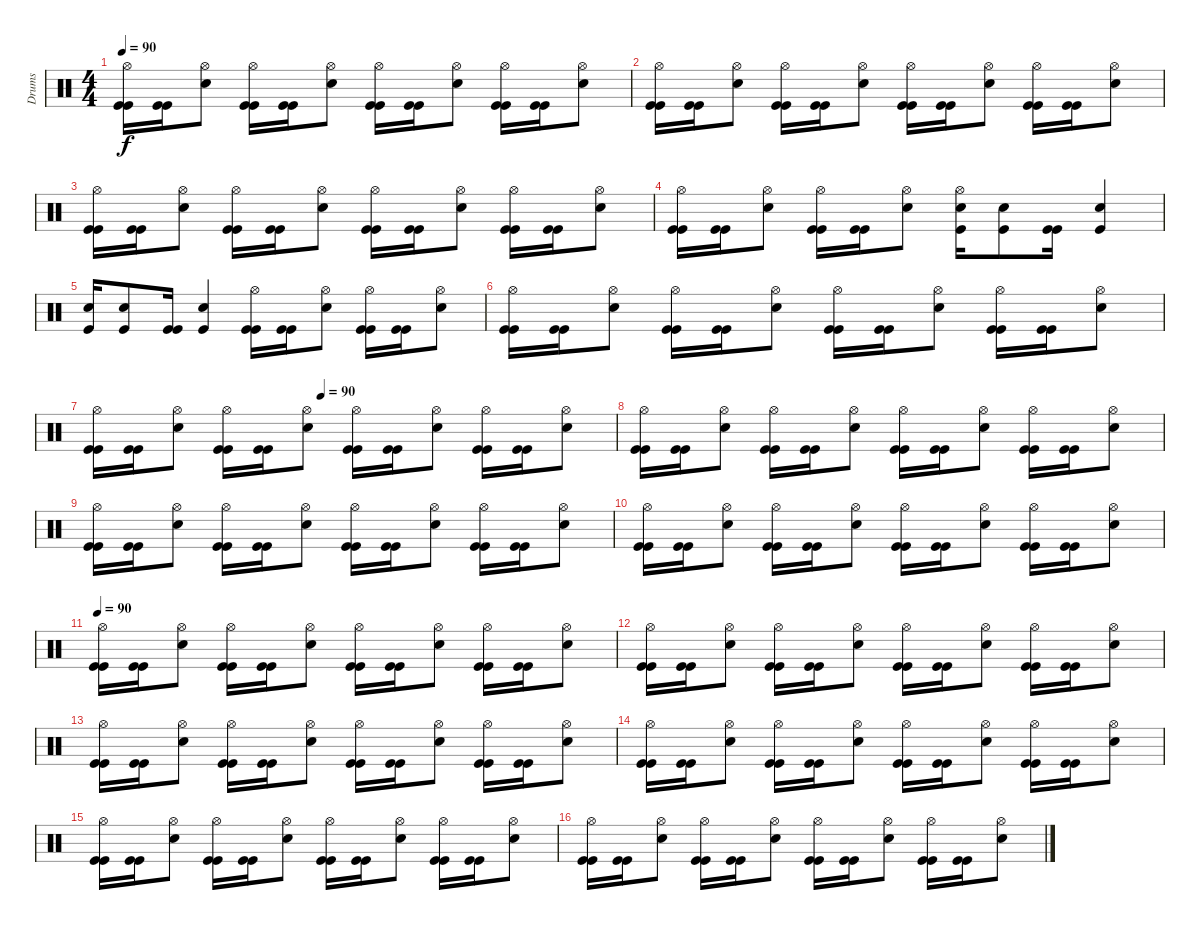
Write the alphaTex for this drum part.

\track ("Drums" "Drums") {instrument percussion}
\staff {score}
\articulation defaults
\ts (4 4)
\tempo 90
\clef neutral
\ks c
("Hi-Hat (open)" "Kick (hit)" "Kick (hit)").16{dy f} ("Kick (hit)" "Kick (hit)").16 ("Hi-Hat (open)" "Electric Snare (hit)").8 ("Hi-Hat (open)" "Kick (hit)" "Kick (hit)").16 ("Kick (hit)" "Kick (hit)").16 ("Hi-Hat (open)" "Electric Snare (hit)").8 ("Hi-Hat (open)" "Kick (hit)" "Kick (hit)").16 ("Kick (hit)" "Kick (hit)").16 ("Hi-Hat (open)" "Electric Snare (hit)").8 ("Hi-Hat (open)" "Kick (hit)" "Kick (hit)").16 ("Kick (hit)" "Kick (hit)").16 ("Hi-Hat (open)" "Electric Snare (hit)").8 |
("Hi-Hat (open)" "Kick (hit)" "Kick (hit)").16 ("Kick (hit)" "Kick (hit)").16 ("Hi-Hat (open)" "Electric Snare (hit)").8 ("Hi-Hat (open)" "Kick (hit)" "Kick (hit)").16 ("Kick (hit)" "Kick (hit)").16 ("Hi-Hat (open)" "Electric Snare (hit)").8 ("Hi-Hat (open)" "Kick (hit)" "Kick (hit)").16 ("Kick (hit)" "Kick (hit)").16 ("Hi-Hat (open)" "Electric Snare (hit)").8 ("Hi-Hat (open)" "Kick (hit)" "Kick (hit)").16 ("Kick (hit)" "Kick (hit)").16 ("Hi-Hat (open)" "Electric Snare (hit)").8 |
("Hi-Hat (open)" "Kick (hit)" "Kick (hit)").16 ("Kick (hit)" "Kick (hit)").16 ("Hi-Hat (open)" "Electric Snare (hit)").8 ("Hi-Hat (open)" "Kick (hit)" "Kick (hit)").16 ("Kick (hit)" "Kick (hit)").16 ("Hi-Hat (open)" "Electric Snare (hit)").8 ("Hi-Hat (open)" "Kick (hit)" "Kick (hit)").16 ("Kick (hit)" "Kick (hit)").16 ("Hi-Hat (open)" "Electric Snare (hit)").8 ("Hi-Hat (open)" "Kick (hit)" "Kick (hit)").16 ("Kick (hit)" "Kick (hit)").16 ("Hi-Hat (open)" "Electric Snare (hit)").8 |
("Hi-Hat (open)" "Kick (hit)" "Kick (hit)").16 ("Kick (hit)" "Kick (hit)").16 ("Hi-Hat (open)" "Electric Snare (hit)").8 ("Hi-Hat (open)" "Kick (hit)" "Kick (hit)").16 ("Kick (hit)" "Kick (hit)").16 ("Hi-Hat (open)" "Electric Snare (hit)").8 ("Hi-Hat (open)" "Electric Snare (hit)" "Kick (hit)").16 ("Electric Snare (hit)" "Kick (hit)").8 ("Kick (hit)" "Kick (hit)").16 ("Electric Snare (hit)" "Kick (hit)").4 |
("Electric Snare (hit)" "Kick (hit)").16 ("Electric Snare (hit)" "Kick (hit)").8 ("Kick (hit)" "Kick (hit)").16 ("Electric Snare (hit)" "Kick (hit)").4 ("Hi-Hat (open)" "Kick (hit)" "Kick (hit)").16 ("Kick (hit)" "Kick (hit)").16 ("Hi-Hat (open)" "Electric Snare (hit)").8 ("Hi-Hat (open)" "Kick (hit)" "Kick (hit)").16 ("Kick (hit)" "Kick (hit)").16 ("Hi-Hat (open)" "Electric Snare (hit)").8 |
("Hi-Hat (open)" "Kick (hit)" "Kick (hit)").16 ("Kick (hit)" "Kick (hit)").16 ("Hi-Hat (open)" "Electric Snare (hit)").8 ("Hi-Hat (open)" "Kick (hit)" "Kick (hit)").16 ("Kick (hit)" "Kick (hit)").16 ("Hi-Hat (open)" "Electric Snare (hit)").8 ("Hi-Hat (open)" "Kick (hit)" "Kick (hit)").16 ("Kick (hit)" "Kick (hit)").16 ("Hi-Hat (open)" "Electric Snare (hit)").8 ("Hi-Hat (open)" "Kick (hit)" "Kick (hit)").16 ("Kick (hit)" "Kick (hit)").16 ("Hi-Hat (open)" "Electric Snare (hit)").8 |
\tempo (90 0.4375)
("Hi-Hat (open)" "Kick (hit)" "Kick (hit)").16 ("Kick (hit)" "Kick (hit)").16 ("Hi-Hat (open)" "Electric Snare (hit)").8 ("Hi-Hat (open)" "Kick (hit)" "Kick (hit)").16 ("Kick (hit)" "Kick (hit)").16 ("Hi-Hat (open)" "Electric Snare (hit)").8 ("Hi-Hat (open)" "Kick (hit)" "Kick (hit)").16 ("Kick (hit)" "Kick (hit)").16 ("Hi-Hat (open)" "Electric Snare (hit)").8 ("Hi-Hat (open)" "Kick (hit)" "Kick (hit)").16 ("Kick (hit)" "Kick (hit)").16 ("Hi-Hat (open)" "Electric Snare (hit)").8 |
("Hi-Hat (open)" "Kick (hit)" "Kick (hit)").16 ("Kick (hit)" "Kick (hit)").16 ("Hi-Hat (open)" "Electric Snare (hit)").8 ("Hi-Hat (open)" "Kick (hit)" "Kick (hit)").16 ("Kick (hit)" "Kick (hit)").16 ("Hi-Hat (open)" "Electric Snare (hit)").8 ("Hi-Hat (open)" "Kick (hit)" "Kick (hit)").16 ("Kick (hit)" "Kick (hit)").16 ("Hi-Hat (open)" "Electric Snare (hit)").8 ("Hi-Hat (open)" "Kick (hit)" "Kick (hit)").16 ("Kick (hit)" "Kick (hit)").16 ("Hi-Hat (open)" "Electric Snare (hit)").8 |
("Hi-Hat (open)" "Kick (hit)" "Kick (hit)").16 ("Kick (hit)" "Kick (hit)").16 ("Hi-Hat (open)" "Electric Snare (hit)").8 ("Hi-Hat (open)" "Kick (hit)" "Kick (hit)").16 ("Kick (hit)" "Kick (hit)").16 ("Hi-Hat (open)" "Electric Snare (hit)").8 ("Hi-Hat (open)" "Kick (hit)" "Kick (hit)").16 ("Kick (hit)" "Kick (hit)").16 ("Hi-Hat (open)" "Electric Snare (hit)").8 ("Hi-Hat (open)" "Kick (hit)" "Kick (hit)").16 ("Kick (hit)" "Kick (hit)").16 ("Hi-Hat (open)" "Electric Snare (hit)").8 |
("Hi-Hat (open)" "Kick (hit)" "Kick (hit)").16 ("Kick (hit)" "Kick (hit)").16 ("Hi-Hat (open)" "Electric Snare (hit)").8 ("Hi-Hat (open)" "Kick (hit)" "Kick (hit)").16 ("Kick (hit)" "Kick (hit)").16 ("Hi-Hat (open)" "Electric Snare (hit)").8 ("Hi-Hat (open)" "Kick (hit)" "Kick (hit)").16 ("Kick (hit)" "Kick (hit)").16 ("Hi-Hat (open)" "Electric Snare (hit)").8 ("Hi-Hat (open)" "Kick (hit)" "Kick (hit)").16 ("Kick (hit)" "Kick (hit)").16 ("Hi-Hat (open)" "Electric Snare (hit)").8 |
\tempo 90
("Hi-Hat (open)" "Kick (hit)" "Kick (hit)").16 ("Kick (hit)" "Kick (hit)").16 ("Hi-Hat (open)" "Electric Snare (hit)").8 ("Hi-Hat (open)" "Kick (hit)" "Kick (hit)").16 ("Kick (hit)" "Kick (hit)").16 ("Hi-Hat (open)" "Electric Snare (hit)").8 ("Hi-Hat (open)" "Kick (hit)" "Kick (hit)").16 ("Kick (hit)" "Kick (hit)").16 ("Hi-Hat (open)" "Electric Snare (hit)").8 ("Hi-Hat (open)" "Kick (hit)" "Kick (hit)").16 ("Kick (hit)" "Kick (hit)").16 ("Hi-Hat (open)" "Electric Snare (hit)").8 |
("Hi-Hat (open)" "Kick (hit)" "Kick (hit)").16 ("Kick (hit)" "Kick (hit)").16 ("Hi-Hat (open)" "Electric Snare (hit)").8 ("Hi-Hat (open)" "Kick (hit)" "Kick (hit)").16 ("Kick (hit)" "Kick (hit)").16 ("Hi-Hat (open)" "Electric Snare (hit)").8 ("Hi-Hat (open)" "Kick (hit)" "Kick (hit)").16 ("Kick (hit)" "Kick (hit)").16 ("Hi-Hat (open)" "Electric Snare (hit)").8 ("Hi-Hat (open)" "Kick (hit)" "Kick (hit)").16 ("Kick (hit)" "Kick (hit)").16 ("Hi-Hat (open)" "Electric Snare (hit)").8 |
("Hi-Hat (open)" "Kick (hit)" "Kick (hit)").16 ("Kick (hit)" "Kick (hit)").16 ("Hi-Hat (open)" "Electric Snare (hit)").8 ("Hi-Hat (open)" "Kick (hit)" "Kick (hit)").16 ("Kick (hit)" "Kick (hit)").16 ("Hi-Hat (open)" "Electric Snare (hit)").8 ("Hi-Hat (open)" "Kick (hit)" "Kick (hit)").16 ("Kick (hit)" "Kick (hit)").16 ("Hi-Hat (open)" "Electric Snare (hit)").8 ("Hi-Hat (open)" "Kick (hit)" "Kick (hit)").16 ("Kick (hit)" "Kick (hit)").16 ("Hi-Hat (open)" "Electric Snare (hit)").8 |
("Hi-Hat (open)" "Kick (hit)" "Kick (hit)").16 ("Kick (hit)" "Kick (hit)").16 ("Hi-Hat (open)" "Electric Snare (hit)").8 ("Hi-Hat (open)" "Kick (hit)" "Kick (hit)").16 ("Kick (hit)" "Kick (hit)").16 ("Hi-Hat (open)" "Electric Snare (hit)").8 ("Hi-Hat (open)" "Kick (hit)" "Kick (hit)").16 ("Kick (hit)" "Kick (hit)").16 ("Hi-Hat (open)" "Electric Snare (hit)").8 ("Hi-Hat (open)" "Kick (hit)" "Kick (hit)").16 ("Kick (hit)" "Kick (hit)").16 ("Hi-Hat (open)" "Electric Snare (hit)").8 |
("Hi-Hat (open)" "Kick (hit)" "Kick (hit)").16 ("Kick (hit)" "Kick (hit)").16 ("Hi-Hat (open)" "Electric Snare (hit)").8 ("Hi-Hat (open)" "Kick (hit)" "Kick (hit)").16 ("Kick (hit)" "Kick (hit)").16 ("Hi-Hat (open)" "Electric Snare (hit)").8 ("Hi-Hat (open)" "Kick (hit)" "Kick (hit)").16 ("Kick (hit)" "Kick (hit)").16 ("Hi-Hat (open)" "Electric Snare (hit)").8 ("Hi-Hat (open)" "Kick (hit)" "Kick (hit)").16 ("Kick (hit)" "Kick (hit)").16 ("Hi-Hat (open)" "Electric Snare (hit)").8 |
("Hi-Hat (open)" "Kick (hit)" "Kick (hit)").16 ("Kick (hit)" "Kick (hit)").16 ("Hi-Hat (open)" "Electric Snare (hit)").8 ("Hi-Hat (open)" "Kick (hit)" "Kick (hit)").16 ("Kick (hit)" "Kick (hit)").16 ("Hi-Hat (open)" "Electric Snare (hit)").8 ("Hi-Hat (open)" "Kick (hit)" "Kick (hit)").16 ("Kick (hit)" "Kick (hit)").16 ("Hi-Hat (open)" "Electric Snare (hit)").8 ("Hi-Hat (open)" "Kick (hit)" "Kick (hit)").16 ("Kick (hit)" "Kick (hit)").16 ("Hi-Hat (open)" "Electric Snare (hit)").8
